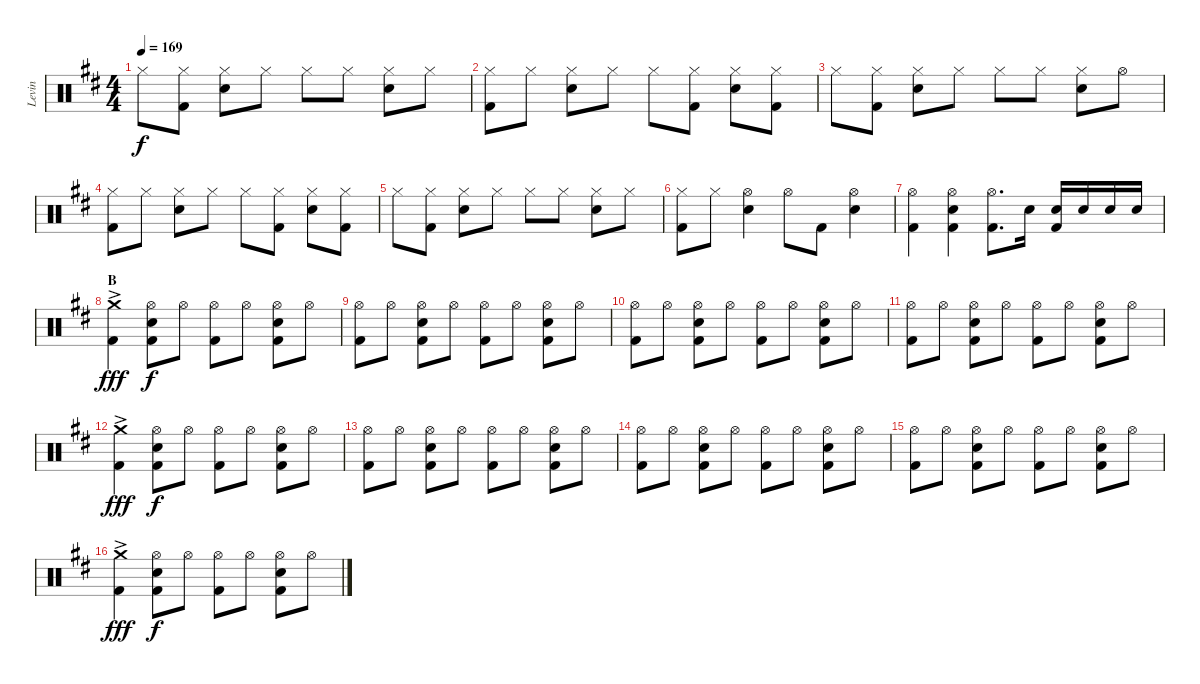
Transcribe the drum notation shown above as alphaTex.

\track ("Levin" "Levin") {instrument percussion}
\staff {score}
\articulation defaults
\ts (4 4)
\tempo 169
\clef neutral
\ks d "Hi-Hat (closed)".8{dy f}
("Hi-Hat (closed)" "Kick (hit) 2").8 ("Hi-Hat (closed)" "Electric Snare (hit)").8 "Hi-Hat (closed)".8 "Hi-Hat (closed)".8 "Hi-Hat (closed)".8 ("Hi-Hat (closed)" "Electric Snare (hit)").8 "Hi-Hat (closed)".8 |
("Hi-Hat (closed)" "Kick (hit) 2").8 "Hi-Hat (closed)".8 ("Hi-Hat (closed)" "Electric Snare (hit)").8 "Hi-Hat (closed)".8 "Hi-Hat (closed)".8 ("Hi-Hat (closed)" "Kick (hit) 2").8 ("Hi-Hat (closed)" "Electric Snare (hit)").8 ("Hi-Hat (closed)" "Kick (hit) 2").8 |
"Hi-Hat (closed)".8 ("Hi-Hat (closed)" "Kick (hit) 2").8 ("Hi-Hat (closed)" "Electric Snare (hit)").8 "Hi-Hat (closed)".8 "Hi-Hat (closed)".8 "Hi-Hat (closed)".8 ("Hi-Hat (closed)" "Electric Snare (hit)").8 "Hi-Hat (open)".8 |
("Hi-Hat (closed)" "Kick (hit) 2").8 "Hi-Hat (closed)".8 ("Hi-Hat (closed)" "Electric Snare (hit)").8 "Hi-Hat (closed)".8 "Hi-Hat (closed)".8 ("Hi-Hat (closed)" "Kick (hit) 2").8 ("Hi-Hat (closed)" "Electric Snare (hit)").8 ("Hi-Hat (closed)" "Kick (hit) 2").8 |
"Hi-Hat (closed)".8 ("Hi-Hat (closed)" "Kick (hit) 2").8 ("Hi-Hat (closed)" "Electric Snare (hit)").8 "Hi-Hat (closed)".8 "Hi-Hat (closed)".8 "Hi-Hat (closed)".8 ("Hi-Hat (closed)" "Electric Snare (hit)").8 "Hi-Hat (closed)".8 |
("Hi-Hat (closed)" "Kick (hit) 2").8 "Hi-Hat (closed)".8 ("Hi-Hat (open)" "Electric Snare (hit)").4 "Hi-Hat (open)".8 "Kick (hit) 2".8 ("Hi-Hat (open)" "Electric Snare (hit)").4 |
("Hi-Hat (open)" "Kick (hit) 2").4 ("Hi-Hat (open)" "Electric Snare (hit)" "Kick (hit) 2").4 ("Hi-Hat (open)" "Kick (hit) 2").8{d} "Electric Snare (hit)".16 ("Electric Snare (hit)" "Kick (hit) 2").16 "Electric Snare (hit)".16 "Electric Snare (hit)".16 "Electric Snare (hit)".16 |
\section ("" "B")
("Crash medium (hit)"{ac} "Kick (hit) 2").4{dy fff} ("Hi-Hat (open)" "Electric Snare (hit)" "Kick (hit) 2").8{dy f} "Hi-Hat (open)".8 ("Hi-Hat (open)" "Kick (hit) 2").8 "Hi-Hat (open)".8 ("Hi-Hat (open)" "Electric Snare (hit)" "Kick (hit) 2").8 "Hi-Hat (open)".8 |
("Hi-Hat (open)" "Kick (hit) 2").8 "Hi-Hat (open)".8 ("Hi-Hat (open)" "Electric Snare (hit)" "Kick (hit) 2").8 "Hi-Hat (open)".8 ("Hi-Hat (open)" "Kick (hit) 2").8 "Hi-Hat (open)".8 ("Hi-Hat (open)" "Electric Snare (hit)" "Kick (hit) 2").8 "Hi-Hat (open)".8 |
("Hi-Hat (open)" "Kick (hit) 2").8 "Hi-Hat (open)".8 ("Hi-Hat (open)" "Electric Snare (hit)" "Kick (hit) 2").8 "Hi-Hat (open)".8 ("Hi-Hat (open)" "Kick (hit) 2").8 "Hi-Hat (open)".8 ("Hi-Hat (open)" "Electric Snare (hit)" "Kick (hit) 2").8 "Hi-Hat (open)".8 |
("Hi-Hat (open)" "Kick (hit) 2").8 "Hi-Hat (open)".8 ("Hi-Hat (open)" "Electric Snare (hit)" "Kick (hit) 2").8 "Hi-Hat (open)".8 ("Hi-Hat (open)" "Kick (hit) 2").8 "Hi-Hat (open)".8 ("Hi-Hat (open)" "Electric Snare (hit)" "Kick (hit) 2").8 "Hi-Hat (open)".8 |
("Crash medium (hit)"{ac} "Kick (hit) 2").4{dy fff} ("Hi-Hat (open)" "Electric Snare (hit)" "Kick (hit) 2").8{dy f} "Hi-Hat (open)".8 ("Hi-Hat (open)" "Kick (hit) 2").8 "Hi-Hat (open)".8 ("Hi-Hat (open)" "Electric Snare (hit)" "Kick (hit) 2").8 "Hi-Hat (open)".8 |
("Hi-Hat (open)" "Kick (hit) 2").8 "Hi-Hat (open)".8 ("Hi-Hat (open)" "Electric Snare (hit)" "Kick (hit) 2").8 "Hi-Hat (open)".8 ("Hi-Hat (open)" "Kick (hit) 2").8 "Hi-Hat (open)".8 ("Hi-Hat (open)" "Electric Snare (hit)" "Kick (hit) 2").8 "Hi-Hat (open)".8 |
("Hi-Hat (open)" "Kick (hit) 2").8 "Hi-Hat (open)".8 ("Hi-Hat (open)" "Electric Snare (hit)" "Kick (hit) 2").8 "Hi-Hat (open)".8 ("Hi-Hat (open)" "Kick (hit) 2").8 "Hi-Hat (open)".8 ("Hi-Hat (open)" "Electric Snare (hit)" "Kick (hit) 2").8 "Hi-Hat (open)".8 |
("Hi-Hat (open)" "Kick (hit) 2").8 "Hi-Hat (open)".8 ("Hi-Hat (open)" "Electric Snare (hit)" "Kick (hit) 2").8 "Hi-Hat (open)".8 ("Hi-Hat (open)" "Kick (hit) 2").8 "Hi-Hat (open)".8 ("Hi-Hat (open)" "Electric Snare (hit)" "Kick (hit) 2").8 "Hi-Hat (open)".8 |
("Crash medium (hit)"{ac} "Kick (hit) 2").4{dy fff} ("Hi-Hat (open)" "Electric Snare (hit)" "Kick (hit) 2").8{dy f} "Hi-Hat (open)".8 ("Hi-Hat (open)" "Kick (hit) 2").8 "Hi-Hat (open)".8 ("Hi-Hat (open)" "Electric Snare (hit)" "Kick (hit) 2").8 "Hi-Hat (open)".8
